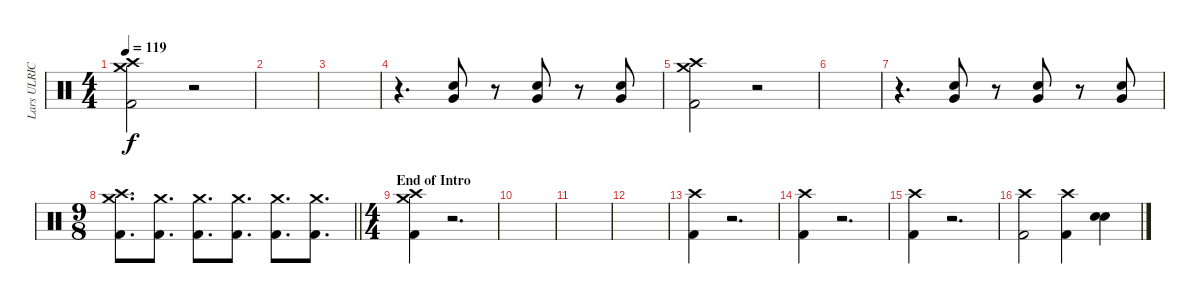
\track ("Lars ULRICH" "Lars ULRIC") {instrument percussion}
\staff {score}
\articulation defaults
\ts (4 4)
\tempo 119
\clef neutral
\ks c
("Crash high (hit)" "Crash medium (hit)" "Kick (hit) 2").2{dy f} r.2 |
|
|
r.4{d} ("Snare (hit) 2" "Very Low Tom (hit)").8 r.8 ("Snare (hit) 2" "Very Low Tom (hit)").8 r.8 ("Snare (hit) 2" "Very Low Tom (hit)").8 |
("Crash high (hit)" "Crash medium (hit)" "Kick (hit) 2").2 r.2 |
|
r.4{d} ("Snare (hit) 2" "Very Low Tom (hit)").8 r.8 ("Snare (hit) 2" "Very Low Tom (hit)").8 r.8 ("Snare (hit) 2" "Very Low Tom (hit)").8 |
\ts (9 8)
\barLineRight lightlight
("Crash high (hit)" "Crash medium (hit)" "Kick (hit) 2").8{d} ("Crash medium (hit)" "Kick (hit) 2").8{d} ("Crash medium (hit)" "Kick (hit) 2").8{d} ("Crash medium (hit)" "Kick (hit) 2").8{d} ("Crash medium (hit)" "Kick (hit) 2").8{d} ("Crash medium (hit)" "Kick (hit) 2").8{d} |
\ts (4 4)
\section ("" "End of Intro")
("Crash high (hit)" "Crash medium (hit)" "Kick (hit) 2").4 r.2{d} |
|
|
|
("Crash high (hit)" "Kick (hit) 2").4 r.2{d} |
("Crash high (hit)" "Kick (hit) 2").4 r.2{d} |
("Crash high (hit)" "Kick (hit) 2").4 r.2{d} |
("Crash high (hit)" "Kick (hit) 2").2 ("Crash high (hit)" "Kick (hit) 2").4 ("Snare (hit) 2" "Snare (hit) 2").4
